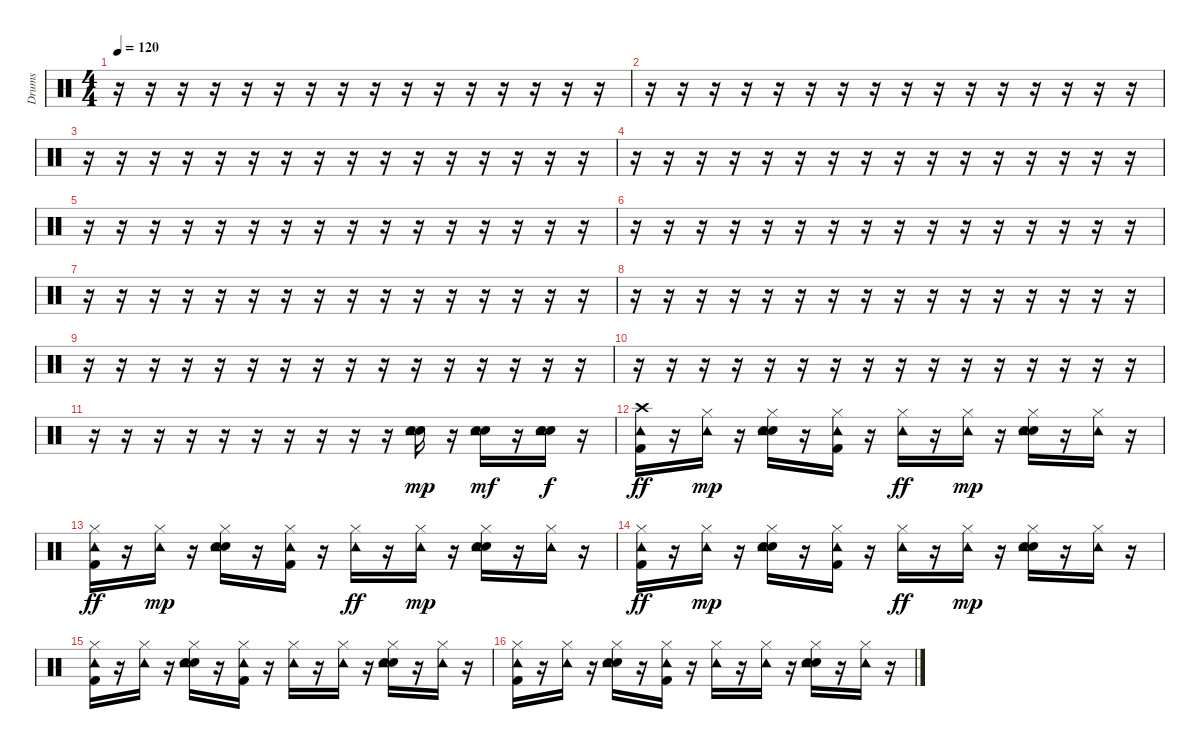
\track ("Drums" "Drums") {instrument percussion}
\staff {score}
\articulation defaults
\ts (4 4)
\tempo 120
\clef neutral
\ks c
r.16{dy mp} r.16 r.16 r.16 r.16 r.16 r.16 r.16 r.16 r.16 r.16 r.16 r.16 r.16 r.16 r.16 |
r.16 r.16 r.16 r.16 r.16 r.16 r.16 r.16 r.16 r.16 r.16 r.16 r.16 r.16 r.16 r.16 |
r.16 r.16 r.16 r.16 r.16 r.16 r.16 r.16 r.16 r.16 r.16 r.16 r.16 r.16 r.16 r.16 |
r.16 r.16 r.16 r.16 r.16 r.16 r.16 r.16 r.16 r.16 r.16 r.16 r.16 r.16 r.16 r.16 |
r.16 r.16 r.16 r.16 r.16 r.16 r.16 r.16 r.16 r.16 r.16 r.16 r.16 r.16 r.16 r.16 |
r.16 r.16 r.16 r.16 r.16 r.16 r.16 r.16 r.16 r.16 r.16 r.16 r.16 r.16 r.16 r.16 |
r.16 r.16 r.16 r.16 r.16 r.16 r.16 r.16 r.16 r.16 r.16 r.16 r.16 r.16 r.16 r.16 |
r.16 r.16 r.16 r.16 r.16 r.16 r.16 r.16 r.16 r.16 r.16 r.16 r.16 r.16 r.16 r.16 |
r.16 r.16 r.16 r.16 r.16 r.16 r.16 r.16 r.16 r.16 r.16 r.16 r.16 r.16 r.16 r.16 |
r.16 r.16 r.16 r.16 r.16 r.16 r.16 r.16 r.16 r.16 r.16 r.16 r.16 r.16 r.16 r.16 |
r.16 r.16 r.16 r.16 r.16 r.16 r.16 r.16 r.16 r.16 ("Snare (hit) 2" "Electric Snare (hit)" "Tambourine (hit)").16 r.16 ("Snare (hit) 2" "Electric Snare (hit)" "Tambourine (hit)").16{dy mf} r.16 ("Snare (hit) 2" "Electric Snare (hit)" "Tambourine (hit)").16{dy f} r.16 |
("Crash high (hit)" "Tambourine (hit)" "Kick (hit) 2").16{dy ff} r.16 ("Hi-Hat (closed)" "Tambourine (hit)").16{dy mp} r.16 ("Hi-Hat (closed)" "Snare (hit) 2" "Electric Snare (hit)" "Tambourine (hit)").16 r.16 ("Hi-Hat (closed)" "Tambourine (hit)" "Kick (hit) 2").16 r.16 ("Hi-Hat (closed)" "Tambourine (hit)").16{dy ff} r.16 ("Hi-Hat (closed)" "Tambourine (hit)").16{dy mp} r.16 ("Hi-Hat (closed)" "Snare (hit) 2" "Electric Snare (hit)" "Tambourine (hit)").16 r.16 ("Hi-Hat (closed)" "Tambourine (hit)").16 r.16 |
("Hi-Hat (closed)" "Tambourine (hit)" "Kick (hit) 2").16{dy ff} r.16 ("Hi-Hat (closed)" "Tambourine (hit)").16{dy mp} r.16 ("Hi-Hat (closed)" "Snare (hit) 2" "Electric Snare (hit)" "Tambourine (hit)").16 r.16 ("Hi-Hat (closed)" "Tambourine (hit)" "Kick (hit) 2").16 r.16 ("Hi-Hat (closed)" "Tambourine (hit)").16{dy ff} r.16 ("Hi-Hat (closed)" "Tambourine (hit)").16{dy mp} r.16 ("Hi-Hat (closed)" "Snare (hit) 2" "Electric Snare (hit)" "Tambourine (hit)").16 r.16 ("Hi-Hat (closed)" "Tambourine (hit)").16 r.16 |
("Hi-Hat (closed)" "Tambourine (hit)" "Kick (hit) 2").16{dy ff} r.16 ("Hi-Hat (closed)" "Tambourine (hit)").16{dy mp} r.16 ("Hi-Hat (closed)" "Snare (hit) 2" "Electric Snare (hit)" "Tambourine (hit)").16 r.16 ("Hi-Hat (closed)" "Tambourine (hit)" "Kick (hit) 2").16 r.16 ("Hi-Hat (closed)" "Tambourine (hit)").16{dy ff} r.16 ("Hi-Hat (closed)" "Tambourine (hit)").16{dy mp} r.16 ("Hi-Hat (closed)" "Snare (hit) 2" "Electric Snare (hit)" "Tambourine (hit)").16 r.16 ("Hi-Hat (closed)" "Tambourine (hit)").16 r.16 |
("Hi-Hat (closed)" "Tambourine (hit)" "Kick (hit) 2").16 r.16 ("Hi-Hat (closed)" "Tambourine (hit)").16 r.16 ("Hi-Hat (closed)" "Snare (hit) 2" "Electric Snare (hit)" "Tambourine (hit)").16 r.16 ("Hi-Hat (closed)" "Tambourine (hit)" "Kick (hit) 2").16 r.16 ("Hi-Hat (closed)" "Tambourine (hit)").16 r.16 ("Hi-Hat (closed)" "Tambourine (hit)").16 r.16 ("Hi-Hat (closed)" "Snare (hit) 2" "Electric Snare (hit)" "Tambourine (hit)").16 r.16 ("Hi-Hat (closed)" "Tambourine (hit)").16 r.16 |
("Hi-Hat (closed)" "Tambourine (hit)" "Kick (hit) 2").16 r.16 ("Hi-Hat (closed)" "Tambourine (hit)").16 r.16 ("Hi-Hat (closed)" "Snare (hit) 2" "Electric Snare (hit)" "Tambourine (hit)").16 r.16 ("Hi-Hat (closed)" "Tambourine (hit)" "Kick (hit) 2").16 r.16 ("Hi-Hat (closed)" "Tambourine (hit)").16 r.16 ("Hi-Hat (closed)" "Tambourine (hit)").16 r.16 ("Hi-Hat (closed)" "Snare (hit) 2" "Electric Snare (hit)" "Tambourine (hit)").16 r.16 ("Hi-Hat (closed)" "Tambourine (hit)").16 r.16
